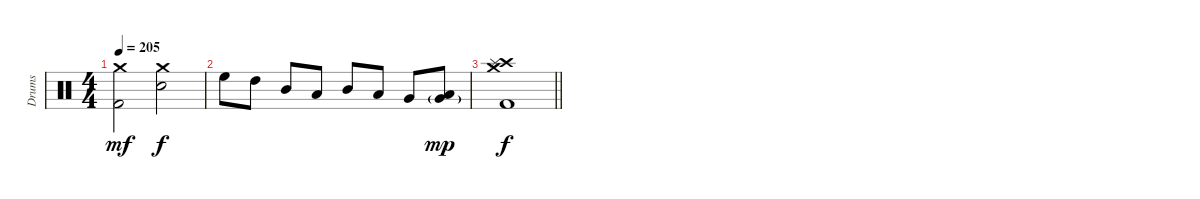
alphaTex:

\track ("Drums" "Drums") {instrument percussion}
\staff {score}
\articulation defaults
\ts (4 4)
\tempo 205
\clef neutral
\ks c
("Crash medium (hit)" "Kick (hit) 2").2{dy mf} ("Crash medium (hit)" "Electric Snare (hit)").2{dy f} |
"High Floor Tom (hit)".8 "High Tom (hit)".8 "Mid Tom (hit)".8 "Low Tom (hit)".8 "Mid Tom (hit)".8 "Low Tom (hit)".8 "Very Low Tom (hit)".8 ("Very Low Tom (hit)"{g} "Low Floor Tom (hit)").8{dy mp} |
\barLineRight lightlight
("Crash high (hit)" "Crash medium (hit)" "Splash (hit)" "Kick (hit) 2").1{dy f}
